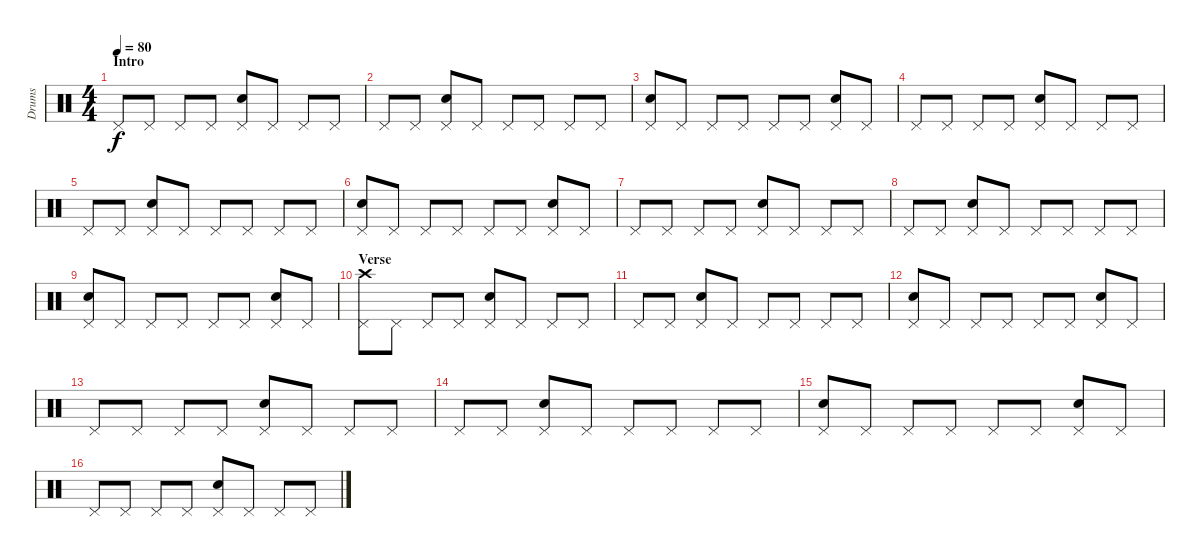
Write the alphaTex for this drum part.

\track ("Drums" "Drums") {instrument percussion}
\staff {score}
\articulation defaults
\ts (4 4)
\section ("" "Intro")
\tempo 80
\clef neutral
\ks c "Pedal Hi-Hat (hit)".8{dy f volume 2} "Pedal Hi-Hat (hit)".8 "Pedal Hi-Hat (hit)".8 "Pedal Hi-Hat (hit)".8
("Electric Snare (hit)" "Pedal Hi-Hat (hit)").8 "Pedal Hi-Hat (hit)".8 "Pedal Hi-Hat (hit)".8 "Pedal Hi-Hat (hit)".8 |
"Pedal Hi-Hat (hit)".8{volume 4} "Pedal Hi-Hat (hit)".8 ("Electric Snare (hit)" "Pedal Hi-Hat (hit)").8 "Pedal Hi-Hat (hit)".8 "Pedal Hi-Hat (hit)".8 "Pedal Hi-Hat (hit)".8 "Pedal Hi-Hat (hit)".8 "Pedal Hi-Hat (hit)".8 |
("Electric Snare (hit)" "Pedal Hi-Hat (hit)").8 "Pedal Hi-Hat (hit)".8 "Pedal Hi-Hat (hit)".8 "Pedal Hi-Hat (hit)".8{volume 6} "Pedal Hi-Hat (hit)".8 "Pedal Hi-Hat (hit)".8 ("Electric Snare (hit)" "Pedal Hi-Hat (hit)").8 "Pedal Hi-Hat (hit)".8 |
"Pedal Hi-Hat (hit)".8{volume 8} "Pedal Hi-Hat (hit)".8 "Pedal Hi-Hat (hit)".8 "Pedal Hi-Hat (hit)".8 ("Electric Snare (hit)" "Pedal Hi-Hat (hit)").8 "Pedal Hi-Hat (hit)".8 "Pedal Hi-Hat (hit)".8 "Pedal Hi-Hat (hit)".8 |
"Pedal Hi-Hat (hit)".8 "Pedal Hi-Hat (hit)".8 ("Electric Snare (hit)" "Pedal Hi-Hat (hit)").8 "Pedal Hi-Hat (hit)".8 "Pedal Hi-Hat (hit)".8 "Pedal Hi-Hat (hit)".8 "Pedal Hi-Hat (hit)".8 "Pedal Hi-Hat (hit)".8 |
("Electric Snare (hit)" "Pedal Hi-Hat (hit)").8 "Pedal Hi-Hat (hit)".8 "Pedal Hi-Hat (hit)".8 "Pedal Hi-Hat (hit)".8 "Pedal Hi-Hat (hit)".8 "Pedal Hi-Hat (hit)".8 ("Electric Snare (hit)" "Pedal Hi-Hat (hit)").8 "Pedal Hi-Hat (hit)".8 |
"Pedal Hi-Hat (hit)".8 "Pedal Hi-Hat (hit)".8 "Pedal Hi-Hat (hit)".8 "Pedal Hi-Hat (hit)".8 ("Electric Snare (hit)" "Pedal Hi-Hat (hit)").8 "Pedal Hi-Hat (hit)".8 "Pedal Hi-Hat (hit)".8 "Pedal Hi-Hat (hit)".8 |
"Pedal Hi-Hat (hit)".8 "Pedal Hi-Hat (hit)".8 ("Electric Snare (hit)" "Pedal Hi-Hat (hit)").8 "Pedal Hi-Hat (hit)".8 "Pedal Hi-Hat (hit)".8 "Pedal Hi-Hat (hit)".8 "Pedal Hi-Hat (hit)".8 "Pedal Hi-Hat (hit)".8 |
("Electric Snare (hit)" "Pedal Hi-Hat (hit)").8 "Pedal Hi-Hat (hit)".8 "Pedal Hi-Hat (hit)".8 "Pedal Hi-Hat (hit)".8 "Pedal Hi-Hat (hit)".8 "Pedal Hi-Hat (hit)".8 ("Electric Snare (hit)" "Pedal Hi-Hat (hit)").8 "Pedal Hi-Hat (hit)".8 |
\section ("" "Verse")
("Crash high (hit)" "Pedal Hi-Hat (hit)").8 "Pedal Hi-Hat (hit)".8 "Pedal Hi-Hat (hit)".8 "Pedal Hi-Hat (hit)".8 ("Electric Snare (hit)" "Pedal Hi-Hat (hit)").8 "Pedal Hi-Hat (hit)".8 "Pedal Hi-Hat (hit)".8 "Pedal Hi-Hat (hit)".8 |
"Pedal Hi-Hat (hit)".8 "Pedal Hi-Hat (hit)".8 ("Electric Snare (hit)" "Pedal Hi-Hat (hit)").8 "Pedal Hi-Hat (hit)".8 "Pedal Hi-Hat (hit)".8 "Pedal Hi-Hat (hit)".8 "Pedal Hi-Hat (hit)".8 "Pedal Hi-Hat (hit)".8 |
("Electric Snare (hit)" "Pedal Hi-Hat (hit)").8 "Pedal Hi-Hat (hit)".8 "Pedal Hi-Hat (hit)".8 "Pedal Hi-Hat (hit)".8 "Pedal Hi-Hat (hit)".8 "Pedal Hi-Hat (hit)".8 ("Electric Snare (hit)" "Pedal Hi-Hat (hit)").8 "Pedal Hi-Hat (hit)".8 |
"Pedal Hi-Hat (hit)".8 "Pedal Hi-Hat (hit)".8 "Pedal Hi-Hat (hit)".8 "Pedal Hi-Hat (hit)".8 ("Electric Snare (hit)" "Pedal Hi-Hat (hit)").8 "Pedal Hi-Hat (hit)".8 "Pedal Hi-Hat (hit)".8 "Pedal Hi-Hat (hit)".8 |
"Pedal Hi-Hat (hit)".8 "Pedal Hi-Hat (hit)".8 ("Electric Snare (hit)" "Pedal Hi-Hat (hit)").8 "Pedal Hi-Hat (hit)".8 "Pedal Hi-Hat (hit)".8 "Pedal Hi-Hat (hit)".8 "Pedal Hi-Hat (hit)".8 "Pedal Hi-Hat (hit)".8 |
("Electric Snare (hit)" "Pedal Hi-Hat (hit)").8 "Pedal Hi-Hat (hit)".8 "Pedal Hi-Hat (hit)".8 "Pedal Hi-Hat (hit)".8 "Pedal Hi-Hat (hit)".8 "Pedal Hi-Hat (hit)".8 ("Electric Snare (hit)" "Pedal Hi-Hat (hit)").8 "Pedal Hi-Hat (hit)".8 |
"Pedal Hi-Hat (hit)".8 "Pedal Hi-Hat (hit)".8 "Pedal Hi-Hat (hit)".8 "Pedal Hi-Hat (hit)".8 ("Electric Snare (hit)" "Pedal Hi-Hat (hit)").8 "Pedal Hi-Hat (hit)".8 "Pedal Hi-Hat (hit)".8 "Pedal Hi-Hat (hit)".8
